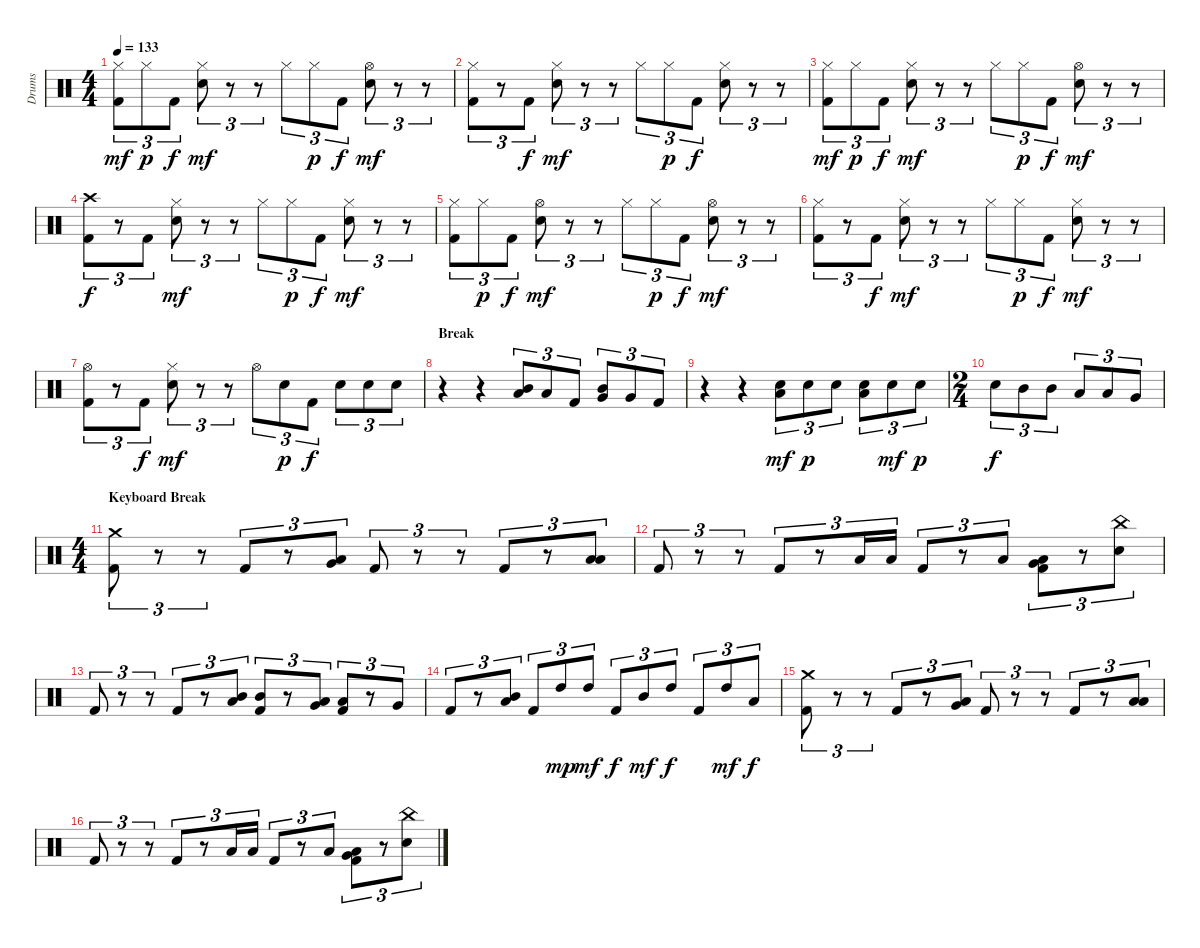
\track ("Drums" "Drums") {instrument percussion}
\staff {score}
\articulation defaults
\ts (4 4)
\tempo 133
\clef neutral
\ks c
("Hi-Hat (closed)" "Kick (hit) 2").8{tu (3 2) dy mf} "Hi-Hat (closed)".8{tu (3 2) dy p} "Kick (hit) 2".8{tu (3 2) dy f} ("Hi-Hat (closed)" "Electric Snare (hit)").8{tu (3 2) dy mf} r.8{tu (3 2)} r.8{tu (3 2)} "Hi-Hat (closed)".8{tu (3 2)} "Hi-Hat (closed)".8{tu (3 2) dy p} "Kick (hit) 2".8{tu (3 2) dy f} ("Hi-Hat (open)" "Electric Snare (hit)").8{tu (3 2) dy mf} r.8{tu (3 2)} r.8{tu (3 2)} |
("Hi-Hat (closed)" "Kick (hit) 2").8{tu (3 2)} r.8{tu (3 2)} "Kick (hit) 2".8{tu (3 2) dy f} ("Hi-Hat (closed)" "Electric Snare (hit)").8{tu (3 2) dy mf} r.8{tu (3 2)} r.8{tu (3 2)} "Hi-Hat (closed)".8{tu (3 2)} "Hi-Hat (closed)".8{tu (3 2) dy p} "Kick (hit) 2".8{tu (3 2) dy f} ("Hi-Hat (closed)" "Electric Snare (hit)").8{tu (3 2)} r.8{tu (3 2)} r.8{tu (3 2)} |
("Hi-Hat (closed)" "Kick (hit) 2").8{tu (3 2) dy mf} "Hi-Hat (closed)".8{tu (3 2) dy p} "Kick (hit) 2".8{tu (3 2) dy f} ("Hi-Hat (closed)" "Electric Snare (hit)").8{tu (3 2) dy mf} r.8{tu (3 2)} r.8{tu (3 2)} "Hi-Hat (closed)".8{tu (3 2)} "Hi-Hat (closed)".8{tu (3 2) dy p} "Kick (hit) 2".8{tu (3 2) dy f} ("Hi-Hat (open)" "Electric Snare (hit)").8{tu (3 2) dy mf} r.8{tu (3 2)} r.8{tu (3 2)} |
("Crash high (hit)" "Kick (hit) 2").8{tu (3 2) dy f} r.8{tu (3 2)} "Kick (hit) 2".8{tu (3 2)} ("Hi-Hat (closed)" "Electric Snare (hit)").8{tu (3 2) dy mf} r.8{tu (3 2)} r.8{tu (3 2)} "Hi-Hat (closed)".8{tu (3 2)} "Hi-Hat (closed)".8{tu (3 2) dy p} "Kick (hit) 2".8{tu (3 2) dy f} ("Hi-Hat (closed)" "Electric Snare (hit)").8{tu (3 2) dy mf} r.8{tu (3 2)} r.8{tu (3 2)} |
("Hi-Hat (closed)" "Kick (hit) 2").8{tu (3 2)} "Hi-Hat (closed)".8{tu (3 2) dy p} "Kick (hit) 2".8{tu (3 2) dy f} ("Hi-Hat (open)" "Electric Snare (hit)").8{tu (3 2) dy mf} r.8{tu (3 2)} r.8{tu (3 2)} "Hi-Hat (closed)".8{tu (3 2)} "Hi-Hat (closed)".8{tu (3 2) dy p} "Kick (hit) 2".8{tu (3 2) dy f} ("Hi-Hat (open)" "Electric Snare (hit)").8{tu (3 2) dy mf} r.8{tu (3 2)} r.8{tu (3 2)} |
("Hi-Hat (closed)" "Kick (hit) 2").8{tu (3 2)} r.8{tu (3 2)} "Kick (hit) 2".8{tu (3 2) dy f} ("Hi-Hat (closed)" "Electric Snare (hit)").8{tu (3 2) dy mf} r.8{tu (3 2)} r.8{tu (3 2)} "Hi-Hat (closed)".8{tu (3 2)} "Hi-Hat (closed)".8{tu (3 2) dy p} "Kick (hit) 2".8{tu (3 2) dy f} ("Hi-Hat (closed)" "Electric Snare (hit)").8{tu (3 2) dy mf} r.8{tu (3 2)} r.8{tu (3 2)} |
("Hi-Hat (open)" "Kick (hit) 2").8{tu (3 2)} r.8{tu (3 2)} "Kick (hit) 2".8{tu (3 2) dy f} ("Hi-Hat (closed)" "Electric Snare (hit)").8{tu (3 2) dy mf} r.8{tu (3 2)} r.8{tu (3 2)} "Hi-Hat (open)".8{tu (3 2)} "Electric Snare (hit)".8{tu (3 2) dy p} "Kick (hit) 2".8{tu (3 2) dy f} "Electric Snare (hit)".8{tu (3 2)} "Electric Snare (hit)".8{tu (3 2)} "Electric Snare (hit)".8{tu (3 2)} |
\section ("" "Break")
r.4 r.4 ("Low Tom (hit)" "Mid Tom (hit)").8{tu (3 2)} "Low Tom (hit)".8{tu (3 2)} "Kick (hit) 2".8{tu (3 2)} ("Very Low Tom (hit)" "Mid Tom (hit)").8{tu (3 2)} "Very Low Tom (hit)".8{tu (3 2)} "Kick (hit) 2".8{tu (3 2)} |
r.4 r.4 ("Electric Snare (hit)" "Low Tom (hit)").8{tu (3 2) dy mf} "Electric Snare (hit)".8{tu (3 2) dy p} "Electric Snare (hit)".8{tu (3 2)} ("Electric Snare (hit)" "Low Tom (hit)").8{tu (3 2)} "Electric Snare (hit)".8{tu (3 2) dy mf} "Electric Snare (hit)".8{tu (3 2) dy p} |
\ts (2 4)
"Electric Snare (hit)".8{tu (3 2) dy f} "Mid Tom (hit)".8{tu (3 2)} "Mid Tom (hit)".8{tu (3 2)} "Low Tom (hit)".8{tu (3 2)} "Low Tom (hit)".8{tu (3 2)} "Very Low Tom (hit)".8{tu (3 2)} |
\ts (4 4)
\section ("" "Keyboard Break")
("Crash medium (hit)" "Kick (hit) 2").8{tu (3 2)} r.8{tu (3 2)} r.8{tu (3 2)} "Kick (hit) 2".8{tu (3 2)} r.8{tu (3 2)} ("Low Tom (hit)" "Very Low Tom (hit)").8{tu (3 2)} "Kick (hit) 2".8{tu (3 2)} r.8{tu (3 2)} r.8{tu (3 2)} "Kick (hit) 2".8{tu (3 2)} r.8{tu (3 2)} ("Low Tom (hit)" "Low Floor Tom (hit)").8{tu (3 2)} |
"Kick (hit) 2".8{tu (3 2)} r.8{tu (3 2)} r.8{tu (3 2)} "Kick (hit) 2".8{tu (3 2)} r.8{tu (3 2)} "Low Tom (hit)".16{tu (3 2)} "Low Tom (hit)".16{tu (3 2)} "Kick (hit) 2".8{tu (3 2)} r.8{tu (3 2)} "Low Floor Tom (hit)".8{tu (3 2)} ("Low Floor Tom (hit)" "Very Low Tom (hit)" "Kick (hit) 2").8{tu (3 2)} r.8{tu (3 2)} ("China (hit)" "Electric Snare (hit)").8{tu (3 2)} |
"Kick (hit) 2".8{tu (3 2)} r.8{tu (3 2)} r.8{tu (3 2)} "Kick (hit) 2".8{tu (3 2)} r.8{tu (3 2)} ("Low Tom (hit)" "Mid Tom (hit)").8{tu (3 2)} ("Mid Tom (hit)" "Kick (hit) 2").8{tu (3 2)} r.8{tu (3 2)} ("Low Tom (hit)" "Very Low Tom (hit)").8{tu (3 2)} ("Low Tom (hit)" "Kick (hit) 2").8{tu (3 2)} r.8{tu (3 2)} "Very Low Tom (hit)".8{tu (3 2)} |
"Kick (hit) 2".8{tu (3 2)} r.8{tu (3 2)} ("Mid Tom (hit)" "Low Tom (hit)").8{tu (3 2)} "Kick (hit) 2".8{tu (3 2)} "High Tom (hit)".8{tu (3 2) dy mp} "High Tom (hit)".8{tu (3 2) dy mf} "Kick (hit) 2".8{tu (3 2) dy f} "Mid Tom (hit)".8{tu (3 2) dy mf} "High Tom (hit)".8{tu (3 2) dy f} "Kick (hit) 2".8{tu (3 2)} "High Tom (hit)".8{tu (3 2) dy mf} "Low Tom (hit)".8{tu (3 2) dy f} |
("Crash medium (hit)" "Kick (hit) 2").8{tu (3 2)} r.8{tu (3 2)} r.8{tu (3 2)} "Kick (hit) 2".8{tu (3 2)} r.8{tu (3 2)} ("Low Tom (hit)" "Very Low Tom (hit)").8{tu (3 2)} "Kick (hit) 2".8{tu (3 2)} r.8{tu (3 2)} r.8{tu (3 2)} "Kick (hit) 2".8{tu (3 2)} r.8{tu (3 2)} ("Low Tom (hit)" "Low Floor Tom (hit)").8{tu (3 2)} |
"Kick (hit) 2".8{tu (3 2)} r.8{tu (3 2)} r.8{tu (3 2)} "Kick (hit) 2".8{tu (3 2)} r.8{tu (3 2)} "Low Tom (hit)".16{tu (3 2)} "Low Tom (hit)".16{tu (3 2)} "Kick (hit) 2".8{tu (3 2)} r.8{tu (3 2)} "Low Floor Tom (hit)".8{tu (3 2)} ("Low Floor Tom (hit)" "Very Low Tom (hit)" "Kick (hit) 2").8{tu (3 2)} r.8{tu (3 2)} ("China (hit)" "Electric Snare (hit)").8{tu (3 2)}
